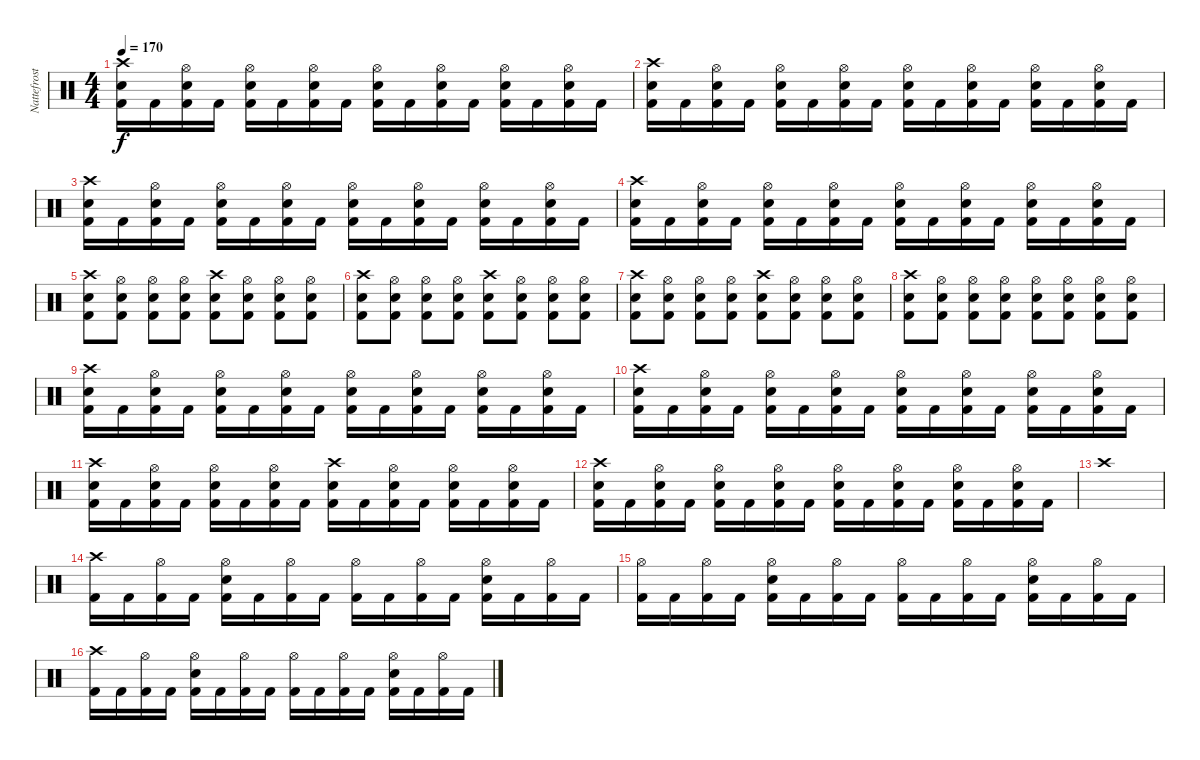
\track ("Nattefrost" "Nattefrost") {instrument percussion}
\staff {score}
\articulation defaults
\ts (4 4)
\tempo 170
\clef neutral
\ks c
("Crash high (hit)" "Snare (hit) 2" "Kick (hit) 2").16{dy f} "Kick (hit) 2".16 ("Hi-Hat (open)" "Snare (hit) 2" "Kick (hit) 2").16 "Kick (hit) 2".16 ("Hi-Hat (open)" "Snare (hit) 2" "Kick (hit) 2").16 "Kick (hit) 2".16 ("Hi-Hat (open)" "Snare (hit) 2" "Kick (hit) 2").16 "Kick (hit) 2".16 ("Hi-Hat (open)" "Snare (hit) 2" "Kick (hit) 2").16 "Kick (hit) 2".16 ("Hi-Hat (open)" "Snare (hit) 2" "Kick (hit) 2").16 "Kick (hit) 2".16 ("Hi-Hat (open)" "Snare (hit) 2" "Kick (hit) 2").16 "Kick (hit) 2".16 ("Hi-Hat (open)" "Snare (hit) 2" "Kick (hit) 2").16 "Kick (hit) 2".16 |
("Crash high (hit)" "Snare (hit) 2" "Kick (hit) 2").16 "Kick (hit) 2".16 ("Hi-Hat (open)" "Snare (hit) 2" "Kick (hit) 2").16 "Kick (hit) 2".16 ("Hi-Hat (open)" "Snare (hit) 2" "Kick (hit) 2").16 "Kick (hit) 2".16 ("Hi-Hat (open)" "Snare (hit) 2" "Kick (hit) 2").16 "Kick (hit) 2".16 ("Hi-Hat (open)" "Snare (hit) 2" "Kick (hit) 2").16 "Kick (hit) 2".16 ("Hi-Hat (open)" "Snare (hit) 2" "Kick (hit) 2").16 "Kick (hit) 2".16 ("Hi-Hat (open)" "Snare (hit) 2" "Kick (hit) 2").16 "Kick (hit) 2".16 ("Hi-Hat (open)" "Snare (hit) 2" "Kick (hit) 2").16 "Kick (hit) 2".16 |
("Crash high (hit)" "Snare (hit) 2" "Kick (hit) 2").16 "Kick (hit) 2".16 ("Hi-Hat (open)" "Snare (hit) 2" "Kick (hit) 2").16 "Kick (hit) 2".16 ("Hi-Hat (open)" "Snare (hit) 2" "Kick (hit) 2").16 "Kick (hit) 2".16 ("Hi-Hat (open)" "Snare (hit) 2" "Kick (hit) 2").16 "Kick (hit) 2".16 ("Hi-Hat (open)" "Snare (hit) 2" "Kick (hit) 2").16 "Kick (hit) 2".16 ("Hi-Hat (open)" "Snare (hit) 2" "Kick (hit) 2").16 "Kick (hit) 2".16 ("Hi-Hat (open)" "Snare (hit) 2" "Kick (hit) 2").16 "Kick (hit) 2".16 ("Hi-Hat (open)" "Snare (hit) 2" "Kick (hit) 2").16 "Kick (hit) 2".16 |
("Crash high (hit)" "Snare (hit) 2" "Kick (hit) 2").16 "Kick (hit) 2".16 ("Hi-Hat (open)" "Snare (hit) 2" "Kick (hit) 2").16 "Kick (hit) 2".16 ("Hi-Hat (open)" "Snare (hit) 2" "Kick (hit) 2").16 "Kick (hit) 2".16 ("Hi-Hat (open)" "Snare (hit) 2" "Kick (hit) 2").16 "Kick (hit) 2".16 ("Hi-Hat (open)" "Snare (hit) 2" "Kick (hit) 2").16 "Kick (hit) 2".16 ("Hi-Hat (open)" "Snare (hit) 2" "Kick (hit) 2").16 "Kick (hit) 2".16 ("Hi-Hat (open)" "Snare (hit) 2" "Kick (hit) 2").16 "Kick (hit) 2".16 ("Hi-Hat (open)" "Snare (hit) 2" "Kick (hit) 2").16 "Kick (hit) 2".16 |
("Crash high (hit)" "Snare (hit) 2" "Kick (hit) 2").8 ("Hi-Hat (open)" "Snare (hit) 2" "Kick (hit) 2").8 ("Hi-Hat (open)" "Snare (hit) 2" "Kick (hit) 2").8 ("Hi-Hat (open)" "Snare (hit) 2" "Kick (hit) 2").8 ("Crash high (hit)" "Snare (hit) 2" "Kick (hit) 2").8 ("Hi-Hat (open)" "Snare (hit) 2" "Kick (hit) 2").8 ("Hi-Hat (open)" "Snare (hit) 2" "Kick (hit) 2").8 ("Hi-Hat (open)" "Snare (hit) 2" "Kick (hit) 2").8 |
("Crash high (hit)" "Snare (hit) 2" "Kick (hit) 2").8 ("Hi-Hat (open)" "Snare (hit) 2" "Kick (hit) 2").8 ("Hi-Hat (open)" "Snare (hit) 2" "Kick (hit) 2").8 ("Hi-Hat (open)" "Snare (hit) 2" "Kick (hit) 2").8 ("Crash high (hit)" "Snare (hit) 2" "Kick (hit) 2").8 ("Hi-Hat (open)" "Snare (hit) 2" "Kick (hit) 2").8 ("Hi-Hat (open)" "Snare (hit) 2" "Kick (hit) 2").8 ("Hi-Hat (open)" "Snare (hit) 2" "Kick (hit) 2").8 |
("Crash high (hit)" "Snare (hit) 2" "Kick (hit) 2").8 ("Hi-Hat (open)" "Snare (hit) 2" "Kick (hit) 2").8 ("Hi-Hat (open)" "Snare (hit) 2" "Kick (hit) 2").8 ("Hi-Hat (open)" "Snare (hit) 2" "Kick (hit) 2").8 ("Crash high (hit)" "Snare (hit) 2" "Kick (hit) 2").8 ("Hi-Hat (open)" "Snare (hit) 2" "Kick (hit) 2").8 ("Hi-Hat (open)" "Snare (hit) 2" "Kick (hit) 2").8 ("Hi-Hat (open)" "Snare (hit) 2" "Kick (hit) 2").8 |
("Crash high (hit)" "Snare (hit) 2" "Kick (hit) 2").8 ("Hi-Hat (open)" "Snare (hit) 2" "Kick (hit) 2").8 ("Hi-Hat (open)" "Snare (hit) 2" "Kick (hit) 2").8 ("Hi-Hat (open)" "Snare (hit) 2" "Kick (hit) 2").8 ("Hi-Hat (open)" "Snare (hit) 2" "Kick (hit) 2").8 ("Hi-Hat (open)" "Snare (hit) 2" "Kick (hit) 2").8 ("Hi-Hat (open)" "Snare (hit) 2" "Kick (hit) 2").8 ("Hi-Hat (open)" "Snare (hit) 2" "Kick (hit) 2").8 |
("Crash high (hit)" "Snare (hit) 2" "Kick (hit) 2").16 "Kick (hit) 2".16 ("Hi-Hat (open)" "Snare (hit) 2" "Kick (hit) 2").16 "Kick (hit) 2".16 ("Hi-Hat (open)" "Snare (hit) 2" "Kick (hit) 2").16 "Kick (hit) 2".16 ("Hi-Hat (open)" "Snare (hit) 2" "Kick (hit) 2").16 "Kick (hit) 2".16 ("Hi-Hat (open)" "Snare (hit) 2" "Kick (hit) 2").16 "Kick (hit) 2".16 ("Hi-Hat (open)" "Snare (hit) 2" "Kick (hit) 2").16 "Kick (hit) 2".16 ("Hi-Hat (open)" "Snare (hit) 2" "Kick (hit) 2").16 "Kick (hit) 2".16 ("Hi-Hat (open)" "Snare (hit) 2" "Kick (hit) 2").16 "Kick (hit) 2".16 |
("Crash high (hit)" "Snare (hit) 2" "Kick (hit) 2").16 "Kick (hit) 2".16 ("Hi-Hat (open)" "Snare (hit) 2" "Kick (hit) 2").16 "Kick (hit) 2".16 ("Hi-Hat (open)" "Snare (hit) 2" "Kick (hit) 2").16 "Kick (hit) 2".16 ("Hi-Hat (open)" "Snare (hit) 2" "Kick (hit) 2").16 "Kick (hit) 2".16 ("Hi-Hat (open)" "Snare (hit) 2" "Kick (hit) 2").16 "Kick (hit) 2".16 ("Hi-Hat (open)" "Snare (hit) 2" "Kick (hit) 2").16 "Kick (hit) 2".16 ("Hi-Hat (open)" "Snare (hit) 2" "Kick (hit) 2").16 "Kick (hit) 2".16 ("Hi-Hat (open)" "Snare (hit) 2" "Kick (hit) 2").16 "Kick (hit) 2".16 |
("Crash high (hit)" "Snare (hit) 2" "Kick (hit) 2").16 "Kick (hit) 2".16 ("Hi-Hat (open)" "Snare (hit) 2" "Kick (hit) 2").16 "Kick (hit) 2".16 ("Hi-Hat (open)" "Snare (hit) 2" "Kick (hit) 2").16 "Kick (hit) 2".16 ("Hi-Hat (open)" "Snare (hit) 2" "Kick (hit) 2").16 "Kick (hit) 2".16 ("Crash high (hit)" "Snare (hit) 2" "Kick (hit) 2").16 "Kick (hit) 2".16 ("Hi-Hat (open)" "Snare (hit) 2" "Kick (hit) 2").16 "Kick (hit) 2".16 ("Hi-Hat (open)" "Snare (hit) 2" "Kick (hit) 2").16 "Kick (hit) 2".16 ("Hi-Hat (open)" "Snare (hit) 2" "Kick (hit) 2").16 "Kick (hit) 2".16 |
("Crash high (hit)" "Snare (hit) 2" "Kick (hit) 2").16 "Kick (hit) 2".16 ("Hi-Hat (open)" "Snare (hit) 2" "Kick (hit) 2").16 "Kick (hit) 2".16 ("Hi-Hat (open)" "Snare (hit) 2" "Kick (hit) 2").16 "Kick (hit) 2".16 ("Hi-Hat (open)" "Snare (hit) 2" "Kick (hit) 2").16 "Kick (hit) 2".16 ("Hi-Hat (open)" "Snare (hit) 2" "Kick (hit) 2").16 "Kick (hit) 2".16 ("Hi-Hat (open)" "Snare (hit) 2" "Kick (hit) 2").16 "Kick (hit) 2".16 ("Hi-Hat (open)" "Snare (hit) 2" "Kick (hit) 2").16 "Kick (hit) 2".16 ("Hi-Hat (open)" "Snare (hit) 2" "Kick (hit) 2").16 "Kick (hit) 2".16 |
"Crash high (hit)".1 |
("Crash high (hit)" "Kick (hit) 2").16 "Kick (hit) 2".16 ("Hi-Hat (open)" "Kick (hit) 2").16 "Kick (hit) 2".16 ("Hi-Hat (open)" "Snare (hit) 2" "Kick (hit) 2").16 "Kick (hit) 2".16 ("Hi-Hat (open)" "Kick (hit) 2").16 "Kick (hit) 2".16 ("Hi-Hat (open)" "Kick (hit) 2").16 "Kick (hit) 2".16 ("Hi-Hat (open)" "Kick (hit) 2").16 "Kick (hit) 2".16 ("Hi-Hat (open)" "Snare (hit) 2" "Kick (hit) 2").16 "Kick (hit) 2".16 ("Hi-Hat (open)" "Kick (hit) 2").16 "Kick (hit) 2".16 |
("Hi-Hat (open)" "Kick (hit) 2").16 "Kick (hit) 2".16 ("Hi-Hat (open)" "Kick (hit) 2").16 "Kick (hit) 2".16 ("Hi-Hat (open)" "Snare (hit) 2" "Kick (hit) 2").16 "Kick (hit) 2".16 ("Hi-Hat (open)" "Kick (hit) 2").16 "Kick (hit) 2".16 ("Hi-Hat (open)" "Kick (hit) 2").16 "Kick (hit) 2".16 ("Hi-Hat (open)" "Kick (hit) 2").16 "Kick (hit) 2".16 ("Hi-Hat (open)" "Snare (hit) 2" "Kick (hit) 2").16 "Kick (hit) 2".16 ("Hi-Hat (open)" "Kick (hit) 2").16 "Kick (hit) 2".16 |
("Crash high (hit)" "Kick (hit) 2").16 "Kick (hit) 2".16 ("Hi-Hat (open)" "Kick (hit) 2").16 "Kick (hit) 2".16 ("Hi-Hat (open)" "Snare (hit) 2" "Kick (hit) 2").16 "Kick (hit) 2".16 ("Hi-Hat (open)" "Kick (hit) 2").16 "Kick (hit) 2".16 ("Hi-Hat (open)" "Kick (hit) 2").16 "Kick (hit) 2".16 ("Hi-Hat (open)" "Kick (hit) 2").16 "Kick (hit) 2".16 ("Hi-Hat (open)" "Snare (hit) 2" "Kick (hit) 2").16 "Kick (hit) 2".16 ("Hi-Hat (open)" "Kick (hit) 2").16 "Kick (hit) 2".16
